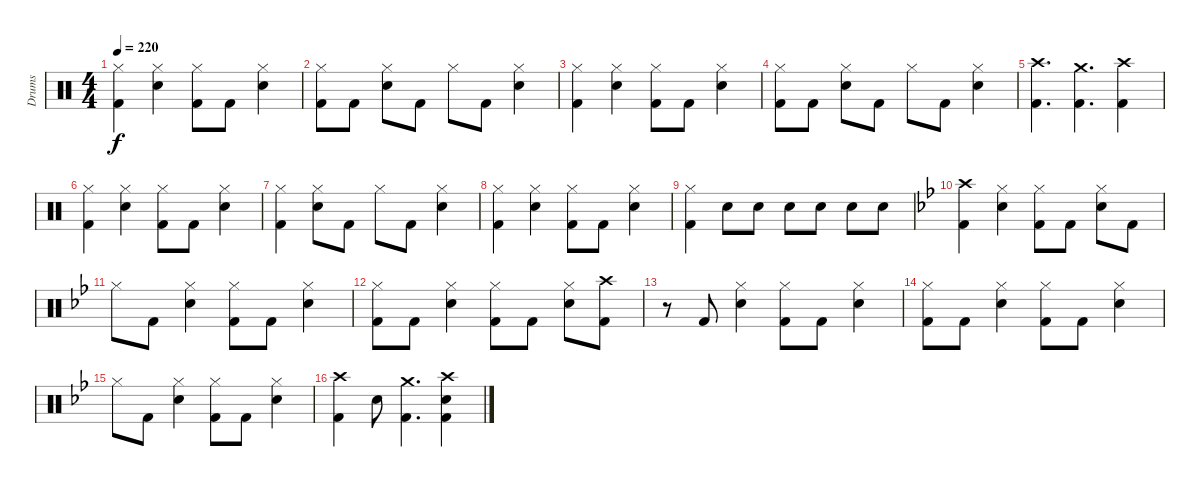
\track ("Drums" "Drums") {instrument percussion}
\staff {score}
\articulation defaults
\ts (4 4)
\tempo 220
\clef neutral
\ks aminor
("Kick (hit) 2" "Hi-Hat (closed)").4{dy f} ("Snare (hit) 2" "Hi-Hat (closed)").4 ("Kick (hit) 2" "Hi-Hat (closed)").8 "Kick (hit) 2".8 ("Snare (hit) 2" "Hi-Hat (closed)").4 |
("Kick (hit) 2" "Hi-Hat (closed)").8 "Kick (hit) 2".8 ("Snare (hit) 2" "Hi-Hat (closed)").8 "Kick (hit) 2".8 "Hi-Hat (closed)".8 "Kick (hit) 2".8 ("Snare (hit) 2" "Hi-Hat (closed)").4 |
("Kick (hit) 2" "Hi-Hat (closed)").4 ("Snare (hit) 2" "Hi-Hat (closed)").4 ("Kick (hit) 2" "Hi-Hat (closed)").8 "Kick (hit) 2".8 ("Snare (hit) 2" "Hi-Hat (closed)").4 |
("Kick (hit) 2" "Hi-Hat (closed)").8 "Kick (hit) 2".8 ("Snare (hit) 2" "Hi-Hat (closed)").8 "Kick (hit) 2".8 "Hi-Hat (closed)".8 "Kick (hit) 2".8 ("Snare (hit) 2" "Hi-Hat (closed)").4 |
("Kick (hit) 2" "Crash high (hit)").4{d} ("Kick (hit) 2" "Crash medium (hit)").4{d} ("Kick (hit) 2" "Crash high (hit)").4 |
("Kick (hit) 2" "Hi-Hat (closed)").4 ("Snare (hit) 2" "Hi-Hat (closed)").4 ("Kick (hit) 2" "Hi-Hat (closed)").8 "Kick (hit) 2".8 ("Snare (hit) 2" "Hi-Hat (closed)").4 |
("Kick (hit) 2" "Hi-Hat (closed)").4 ("Snare (hit) 2" "Hi-Hat (closed)").8 "Kick (hit) 2".8 "Hi-Hat (closed)".8 "Kick (hit) 2".8 ("Snare (hit) 2" "Hi-Hat (closed)").4 |
("Kick (hit) 2" "Hi-Hat (closed)").4 ("Snare (hit) 2" "Hi-Hat (closed)").4 ("Kick (hit) 2" "Hi-Hat (closed)").8 "Kick (hit) 2".8 ("Snare (hit) 2" "Hi-Hat (closed)").4 |
("Kick (hit) 2" "Hi-Hat (closed)").4 "Snare (hit) 2".8 "Snare (hit) 2".8 "Snare (hit) 2".8 "Snare (hit) 2".8 "Snare (hit) 2".8 "Snare (hit) 2".8 |
\ks gminor
("Kick (hit) 2" "Crash high (hit)").4 ("Snare (hit) 2" "Hi-Hat (closed)").4 ("Kick (hit) 2" "Hi-Hat (closed)").8 "Kick (hit) 2".8 ("Snare (hit) 2" "Hi-Hat (closed)").8 "Kick (hit) 2".8 |
"Hi-Hat (closed)".8 "Kick (hit) 2".8 ("Snare (hit) 2" "Hi-Hat (closed)").4 ("Kick (hit) 2" "Hi-Hat (closed)").8 "Kick (hit) 2".8 ("Snare (hit) 2" "Hi-Hat (closed)").4 |
("Kick (hit) 2" "Hi-Hat (closed)").8 "Kick (hit) 2".8 ("Snare (hit) 2" "Hi-Hat (closed)").4 ("Kick (hit) 2" "Hi-Hat (closed)").8 "Kick (hit) 2".8 ("Snare (hit) 2" "Hi-Hat (closed)").8 ("Kick (hit) 2" "Crash high (hit)").8 |
r.8 "Kick (hit) 2".8 ("Snare (hit) 2" "Hi-Hat (closed)").4 ("Kick (hit) 2" "Hi-Hat (closed)").8 "Kick (hit) 2".8 ("Snare (hit) 2" "Hi-Hat (closed)").4 |
("Kick (hit) 2" "Hi-Hat (closed)").8 "Kick (hit) 2".8 ("Snare (hit) 2" "Hi-Hat (closed)").4 ("Kick (hit) 2" "Hi-Hat (closed)").8 "Kick (hit) 2".8 ("Snare (hit) 2" "Hi-Hat (closed)").4 |
"Hi-Hat (closed)".8 "Kick (hit) 2".8 ("Snare (hit) 2" "Hi-Hat (closed)").4 ("Kick (hit) 2" "Hi-Hat (closed)").8 "Kick (hit) 2".8 ("Snare (hit) 2" "Hi-Hat (closed)").4 |
("Kick (hit) 2" "Crash high (hit)").4 "Snare (hit) 2".8 ("Kick (hit) 2" "Crash medium (hit)").4{d} ("Kick (hit) 2" "Snare (hit) 2" "Crash high (hit)").4
